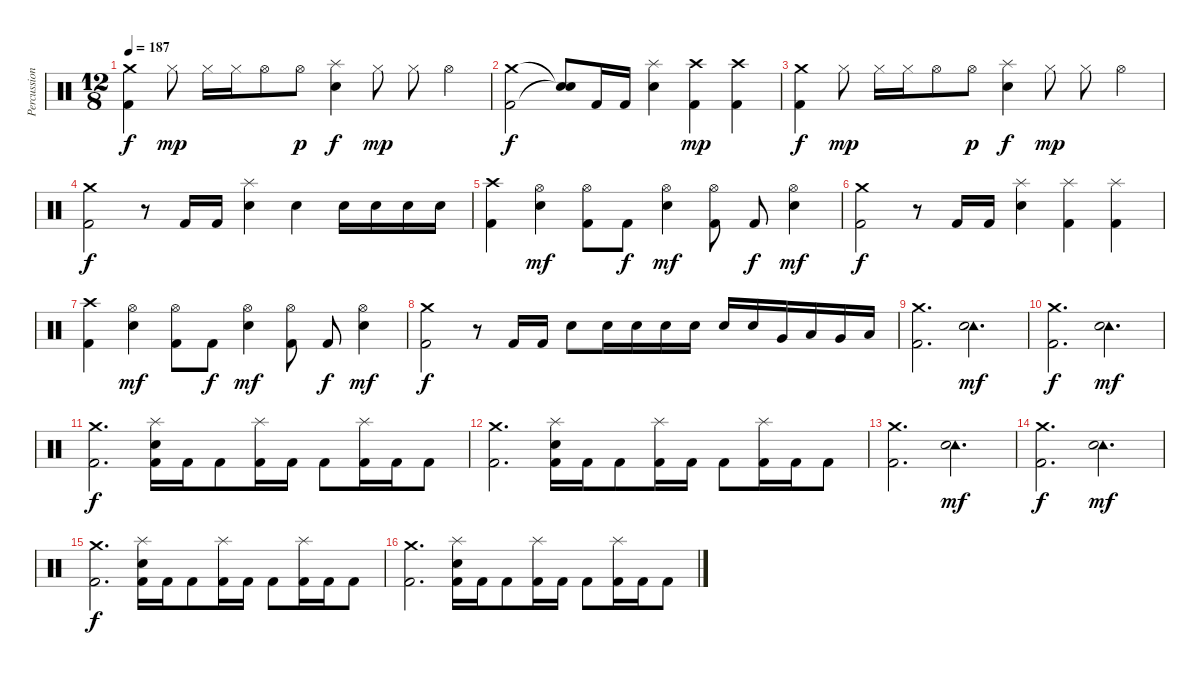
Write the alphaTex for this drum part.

\track ("Percussion" "Percussion") {instrument percussion}
\staff {score}
\articulation defaults
\ts (12 8)
\tempo 187
\clef neutral
\ks c
("Crash medium (hit)" "Kick (hit) 2").4{dy f} "Hi-Hat (closed)".8{dy mp} "Hi-Hat (closed)".16 "Hi-Hat (closed)".16 "Hi-Hat (open)".8 "Hi-Hat (open)".8{dy p} ("Splash (hit)" "Snare (hit) 2").4{dy f} "Hi-Hat (closed)".8{dy mp} "Hi-Hat (closed)".8 "Hi-Hat (open)".4 |
("Crash medium (hit)" "Kick (hit) 2").2{dy f} ("Snare (hit)"{t} "Snare (hit)"{t}).8 "Kick (hit) 2".16 "Kick (hit) 2".16 ("Splash (hit)" "Snare (hit) 2").4 ("Crash high (hit)" "Kick (hit) 2").4{dy mp} ("Crash high (hit)" "Kick (hit) 2").4 |
("Crash medium (hit)" "Kick (hit) 2").4{dy f} "Hi-Hat (closed)".8{dy mp} "Hi-Hat (closed)".16 "Hi-Hat (closed)".16 "Hi-Hat (open)".8 "Hi-Hat (open)".8{dy p} ("Splash (hit)" "Snare (hit) 2").4{dy f} "Hi-Hat (closed)".8{dy mp} "Hi-Hat (closed)".8 "Hi-Hat (open)".4 |
("Crash medium (hit)" "Kick (hit) 2").2{dy f} r.8 "Kick (hit) 2".16 "Kick (hit) 2".16 ("Splash (hit)" "Snare (hit) 2").4 "Snare (hit) 2".4 "Snare (hit) 2".16 "Snare (hit) 2".16 "Snare (hit) 2".16 "Snare (hit) 2".16 |
("Crash high (hit)" "Kick (hit) 2").4 ("Hi-Hat (open)" "Snare (hit) 2").4{dy mf} ("Hi-Hat (open)" "Kick (hit) 2").8 "Kick (hit) 2".8{dy f} ("Hi-Hat (open)" "Snare (hit) 2").4{dy mf} ("Hi-Hat (open)" "Kick (hit) 2").8 "Kick (hit) 2".8{dy f} ("Hi-Hat (open)" "Snare (hit) 2").4{dy mf} |
("Crash medium (hit)" "Kick (hit) 2").2{dy f} r.8 "Kick (hit) 2".16 "Kick (hit) 2".16 ("Splash (hit)" "Snare (hit) 2").4 ("Splash (hit)" "Kick (hit) 2").4 ("Splash (hit)" "Kick (hit) 2").4 |
("Crash high (hit)" "Kick (hit) 2").4 ("Hi-Hat (open)" "Snare (hit) 2").4{dy mf} ("Hi-Hat (open)" "Kick (hit) 2").8 "Kick (hit) 2".8{dy f} ("Hi-Hat (open)" "Snare (hit) 2").4{dy mf} ("Hi-Hat (open)" "Kick (hit) 2").8 "Kick (hit) 2".8{dy f} ("Hi-Hat (open)" "Snare (hit) 2").4{dy mf} |
("Crash medium (hit)" "Kick (hit) 2").2{dy f} r.8 "Kick (hit) 2".16 "Kick (hit) 2".16 "Snare (hit) 2".8 "Snare (hit) 2".16 "Snare (hit) 2".16 "Snare (hit) 2".16 "Snare (hit) 2".16 "Snare (hit) 2".16 "Snare (hit) 2".16 "Very Low Tom (hit)".16 "Low Tom (hit)".16 "Very Low Tom (hit)".16 "Low Floor Tom (hit)".16 |
("Crash medium (hit)" "Kick (hit) 2").2{d} ("Tambourine (hit)" "Snare (hit) 2").2{d dy mf} |
("Crash medium (hit)" "Kick (hit) 2").2{d dy f} ("Tambourine (hit)" "Snare (hit) 2").2{d dy mf} |
("Crash medium (hit)" "Kick (hit) 2").2{d dy f} ("Splash (hit)" "Snare (hit) 2" "Kick (hit) 2").16 "Kick (hit) 2".16 "Kick (hit) 2".8 ("Splash (hit)" "Kick (hit) 2").16 "Kick (hit) 2".16 "Kick (hit) 2".8 ("Splash (hit)" "Kick (hit) 2").16 "Kick (hit) 2".16 "Kick (hit) 2".8 |
("Crash medium (hit)" "Kick (hit) 2").2{d} ("Splash (hit)" "Snare (hit) 2" "Kick (hit) 2").16 "Kick (hit) 2".16 "Kick (hit) 2".8 ("Splash (hit)" "Kick (hit) 2").16 "Kick (hit) 2".16 "Kick (hit) 2".8 ("Splash (hit)" "Kick (hit) 2").16 "Kick (hit) 2".16 "Kick (hit) 2".8 |
("Crash medium (hit)" "Kick (hit) 2").2{d} ("Tambourine (hit)" "Snare (hit) 2").2{d dy mf} |
("Crash medium (hit)" "Kick (hit) 2").2{d dy f} ("Tambourine (hit)" "Snare (hit) 2").2{d dy mf} |
("Crash medium (hit)" "Kick (hit) 2").2{d dy f} ("Splash (hit)" "Snare (hit) 2" "Kick (hit) 2").16 "Kick (hit) 2".16 "Kick (hit) 2".8 ("Splash (hit)" "Kick (hit) 2").16 "Kick (hit) 2".16 "Kick (hit) 2".8 ("Splash (hit)" "Kick (hit) 2").16 "Kick (hit) 2".16 "Kick (hit) 2".8 |
("Crash medium (hit)" "Kick (hit) 2").2{d} ("Splash (hit)" "Snare (hit) 2" "Kick (hit) 2").16 "Kick (hit) 2".16 "Kick (hit) 2".8 ("Splash (hit)" "Kick (hit) 2").16 "Kick (hit) 2".16 "Kick (hit) 2".8 ("Splash (hit)" "Kick (hit) 2").16 "Kick (hit) 2".16 "Kick (hit) 2".8
